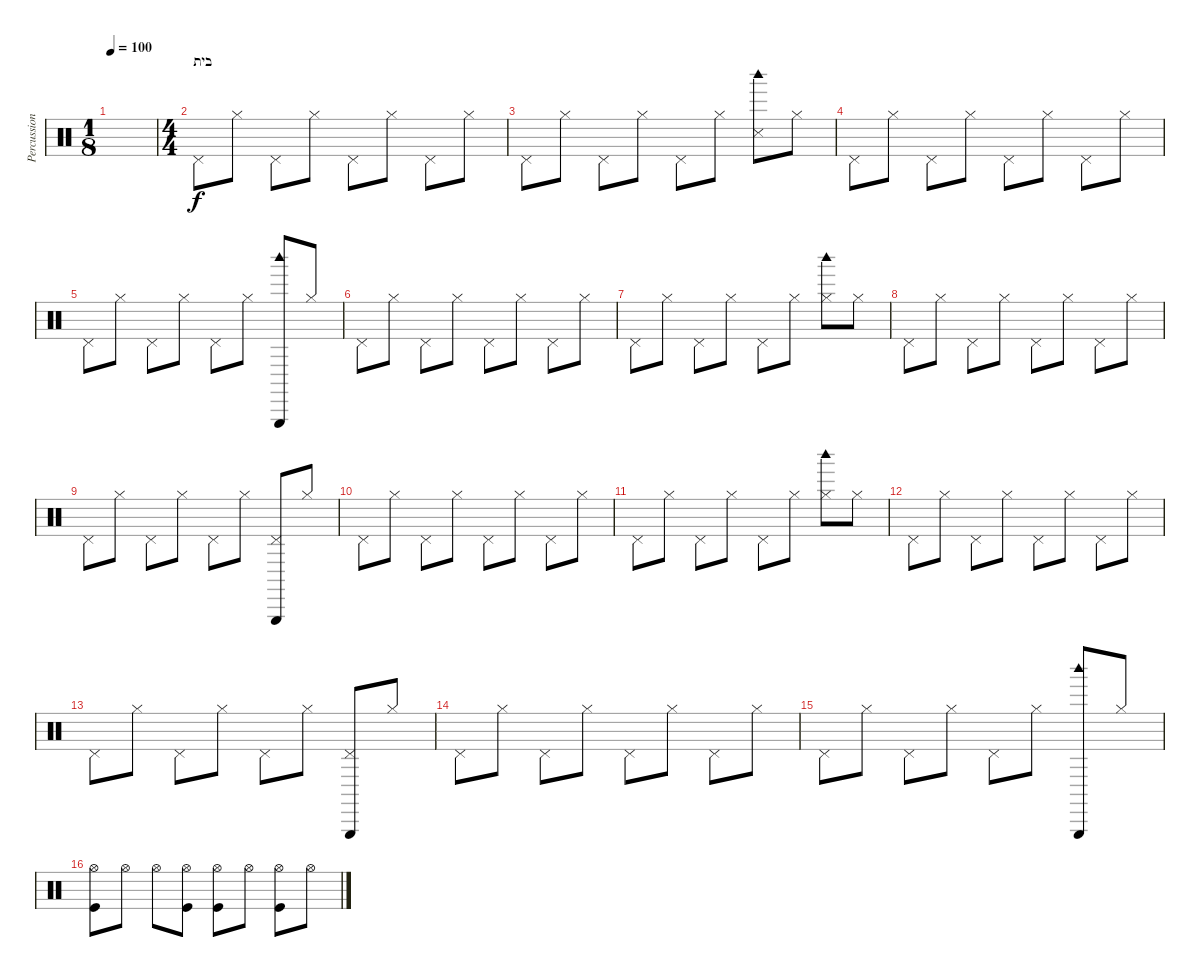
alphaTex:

\track ("Percussion" "Percussion") {instrument percussion}
\staff {score}
\articulation defaults
\ts (1 8)
\tempo 100
\clef neutral
\ks c
|
\ts (4 4)
\section ("" "בית")
"Pedal Hi-Hat (hit)".8 "Hi-Hat (closed)".8 "Pedal Hi-Hat (hit)".8 "Hi-Hat (closed)".8 "Pedal Hi-Hat (hit)".8 "Hi-Hat (closed)".8 "Pedal Hi-Hat (hit)".8 "Hi-Hat (closed)".8 |
"Pedal Hi-Hat (hit)".8 "Hi-Hat (closed)".8 "Pedal Hi-Hat (hit)".8 "Hi-Hat (closed)".8 "Pedal Hi-Hat (hit)".8 "Hi-Hat (closed)".8 ("Snare (side stick) 3" "Woodblock high (hit)").8 "Hi-Hat (closed)".8 |
"Pedal Hi-Hat (hit)".8 "Hi-Hat (closed)".8 "Pedal Hi-Hat (hit)".8 "Hi-Hat (closed)".8 "Pedal Hi-Hat (hit)".8 "Hi-Hat (closed)".8 "Pedal Hi-Hat (hit)".8 "Hi-Hat (closed)".8 |
"Pedal Hi-Hat (hit)".8 "Hi-Hat (closed)".8 "Pedal Hi-Hat (hit)".8 "Hi-Hat (closed)".8 "Pedal Hi-Hat (hit)".8 "Hi-Hat (closed)".8 ("Woodblock high (hit)" "Triangle (hit)").8 "Hi-Hat (closed)".8 |
"Pedal Hi-Hat (hit)".8 "Hi-Hat (closed)".8 "Pedal Hi-Hat (hit)".8 "Hi-Hat (closed)".8 "Pedal Hi-Hat (hit)".8 "Hi-Hat (closed)".8 "Pedal Hi-Hat (hit)".8 "Hi-Hat (closed)".8 |
"Pedal Hi-Hat (hit)".8 "Hi-Hat (closed)".8 "Pedal Hi-Hat (hit)".8 "Hi-Hat (closed)".8 "Pedal Hi-Hat (hit)".8 "Hi-Hat (closed)".8 ("Woodblock high (hit)" "Hi-Hat (closed)").8 "Hi-Hat (closed)".8 |
"Pedal Hi-Hat (hit)".8 "Hi-Hat (closed)".8 "Pedal Hi-Hat (hit)".8 "Hi-Hat (closed)".8 "Pedal Hi-Hat (hit)".8 "Hi-Hat (closed)".8 "Pedal Hi-Hat (hit)".8 "Hi-Hat (closed)".8 |
"Pedal Hi-Hat (hit)".8 "Hi-Hat (closed)".8 "Pedal Hi-Hat (hit)".8 "Hi-Hat (closed)".8 "Pedal Hi-Hat (hit)".8 "Hi-Hat (closed)".8 ("Pedal Hi-Hat (hit)" "Triangle (hit)").8 "Hi-Hat (closed)".8 |
"Pedal Hi-Hat (hit)".8 "Hi-Hat (closed)".8 "Pedal Hi-Hat (hit)".8 "Hi-Hat (closed)".8 "Pedal Hi-Hat (hit)".8 "Hi-Hat (closed)".8 "Pedal Hi-Hat (hit)".8 "Hi-Hat (closed)".8 |
"Pedal Hi-Hat (hit)".8 "Hi-Hat (closed)".8 "Pedal Hi-Hat (hit)".8 "Hi-Hat (closed)".8 "Pedal Hi-Hat (hit)".8 "Hi-Hat (closed)".8 ("Woodblock high (hit)" "Hi-Hat (closed)").8 "Hi-Hat (closed)".8 |
"Pedal Hi-Hat (hit)".8 "Hi-Hat (closed)".8 "Pedal Hi-Hat (hit)".8 "Hi-Hat (closed)".8 "Pedal Hi-Hat (hit)".8 "Hi-Hat (closed)".8 "Pedal Hi-Hat (hit)".8 "Hi-Hat (closed)".8 |
"Pedal Hi-Hat (hit)".8 "Hi-Hat (closed)".8 "Pedal Hi-Hat (hit)".8 "Hi-Hat (closed)".8 "Pedal Hi-Hat (hit)".8 "Hi-Hat (closed)".8 ("Pedal Hi-Hat (hit)" "Triangle (hit)").8 "Hi-Hat (closed)".8 |
"Pedal Hi-Hat (hit)".8 "Hi-Hat (closed)".8 "Pedal Hi-Hat (hit)".8 "Hi-Hat (closed)".8 "Pedal Hi-Hat (hit)".8 "Hi-Hat (closed)".8 "Pedal Hi-Hat (hit)".8 "Hi-Hat (closed)".8 |
"Pedal Hi-Hat (hit)".8 "Hi-Hat (closed)".8 "Pedal Hi-Hat (hit)".8 "Hi-Hat (closed)".8 "Pedal Hi-Hat (hit)".8 "Hi-Hat (closed)".8 ("Woodblock high (hit)" "Triangle (hit)").8 "Hi-Hat (closed)".8 |
("Hi-Hat (open)" "Kick (hit)").8 "Hi-Hat (open)".8 "Hi-Hat (open)".8 ("Hi-Hat (open)" "Kick (hit)").8 ("Hi-Hat (open)" "Kick (hit)").8 "Hi-Hat (open)".8 ("Hi-Hat (open)" "Kick (hit)").8 "Hi-Hat (open)".8
